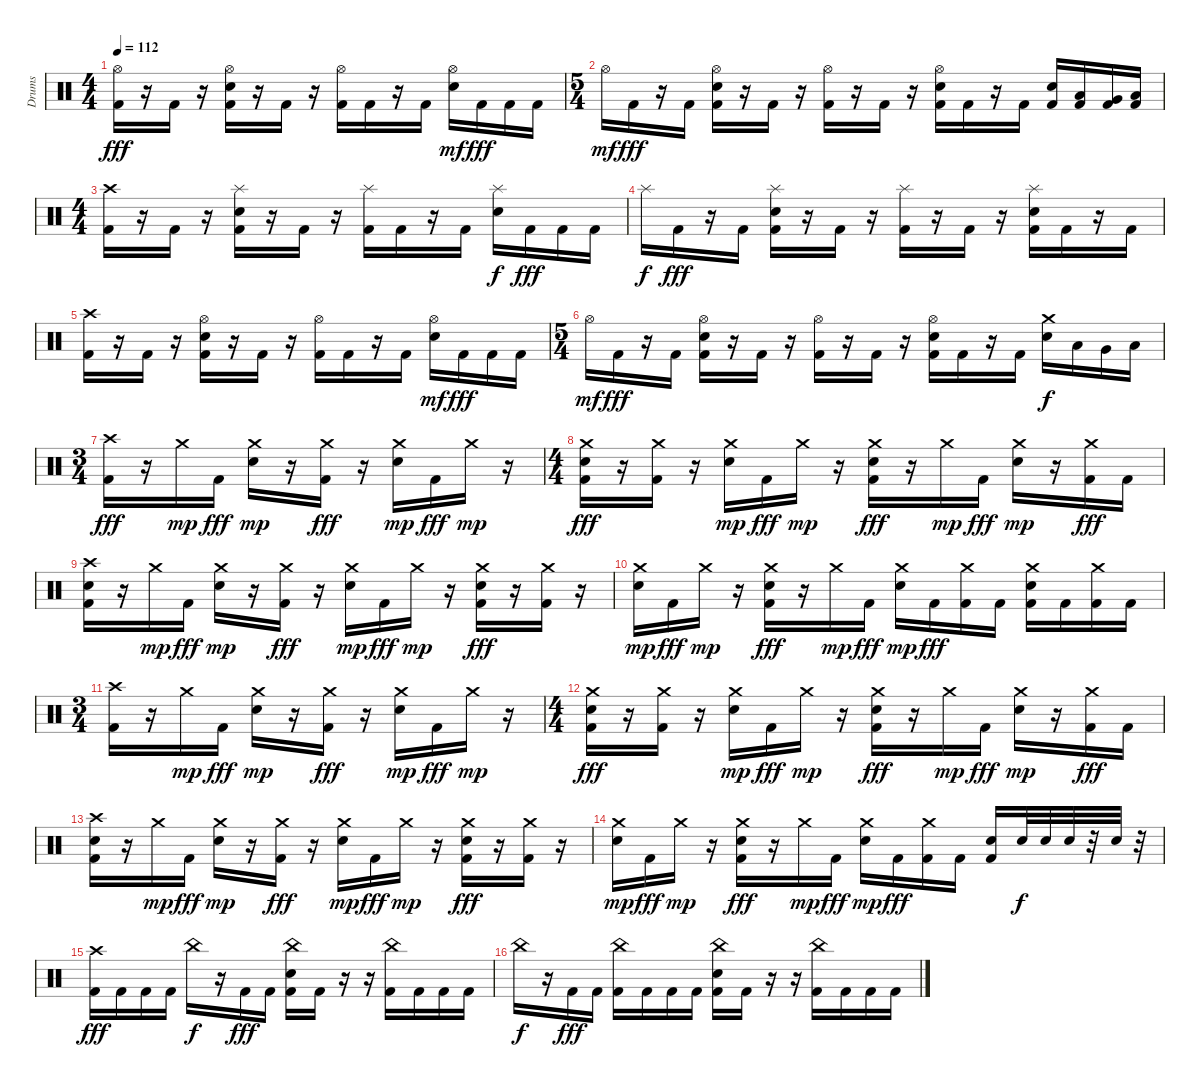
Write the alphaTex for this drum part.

\track ("Drums" "Drums") {instrument percussion}
\staff
\articulation defaults
\ts (4 4)
\tempo 112
\clef neutral
\ks c
("Hi-Hat (open)" "Kick (hit) 2").16{dy fff} r.16 "Kick (hit) 2".16 r.16 ("Hi-Hat (open)" "Electric Snare (hit)" "Kick (hit) 2").16 r.16 "Kick (hit) 2".16 r.16 ("Hi-Hat (open)" "Kick (hit) 2").16 "Kick (hit) 2".16 r.16 "Kick (hit) 2".16 ("Hi-Hat (open)" "Electric Snare (hit)").16{dy mf} "Kick (hit) 2".16{dy fff} "Kick (hit) 2".16 "Kick (hit) 2".16 |
\ts (5 4)
"Hi-Hat (open)".16{dy mf} "Kick (hit) 2".16{dy fff} r.16 "Kick (hit) 2".16 ("Hi-Hat (open)" "Electric Snare (hit)" "Kick (hit) 2").16 r.16 "Kick (hit) 2".16 r.16 ("Hi-Hat (open)" "Kick (hit) 2").16 r.16 "Kick (hit) 2".16 r.16 ("Hi-Hat (open)" "Electric Snare (hit)" "Kick (hit) 2").16 "Kick (hit) 2".16 r.16 "Kick (hit) 2".16 ("Electric Snare (hit)" "Kick (hit) 2").16 ("Low Tom (hit)" "Kick (hit) 2").16 ("Very Low Tom (hit)" "Kick (hit) 2").16 ("Low Floor Tom (hit)" "Kick (hit) 2").16 |
\ts (4 4)
("Crash high (hit)" "Kick (hit) 2").16 r.16 "Kick (hit) 2".16 r.16 ("Splash (hit)" "Electric Snare (hit)" "Kick (hit) 2").16 r.16 "Kick (hit) 2".16 r.16 ("Splash (hit)" "Kick (hit) 2").16 "Kick (hit) 2".16 r.16 "Kick (hit) 2".16 ("Splash (hit)" "Electric Snare (hit)").16{dy f} "Kick (hit) 2".16{dy fff} "Kick (hit) 2".16 "Kick (hit) 2".16 |
"Splash (hit)".16{dy f} "Kick (hit) 2".16{dy fff} r.16 "Kick (hit) 2".16 ("Splash (hit)" "Electric Snare (hit)" "Kick (hit) 2").16 r.16 "Kick (hit) 2".16 r.16 ("Splash (hit)" "Kick (hit) 2").16 r.16 "Kick (hit) 2".16 r.16 ("Splash (hit)" "Electric Snare (hit)" "Kick (hit) 2").16 "Kick (hit) 2".16 r.16 "Kick (hit) 2".16 |
("Crash high (hit)" "Kick (hit) 2").16 r.16 "Kick (hit) 2".16 r.16 ("Hi-Hat (open)" "Electric Snare (hit)" "Kick (hit) 2").16 r.16 "Kick (hit) 2".16 r.16 ("Hi-Hat (open)" "Kick (hit) 2").16 "Kick (hit) 2".16 r.16 "Kick (hit) 2".16 ("Hi-Hat (open)" "Electric Snare (hit)").16{dy mf} "Kick (hit) 2".16{dy fff} "Kick (hit) 2".16 "Kick (hit) 2".16 |
\ts (5 4)
"Hi-Hat (open)".16{dy mf} "Kick (hit) 2".16{dy fff} r.16 "Kick (hit) 2".16 ("Hi-Hat (open)" "Electric Snare (hit)" "Kick (hit) 2").16 r.16 "Kick (hit) 2".16 r.16 ("Hi-Hat (open)" "Kick (hit) 2").16 r.16 "Kick (hit) 2".16 r.16 ("Hi-Hat (open)" "Electric Snare (hit)" "Kick (hit) 2").16 "Kick (hit) 2".16 r.16 "Kick (hit) 2".16 ("Crash medium (hit)" "Electric Snare (hit)").16{dy f} "Low Tom (hit)".16 "Very Low Tom (hit)".16 "Low Floor Tom (hit)".16 |
\ts (3 4)
("Crash high (hit)" "Kick (hit) 2").16{dy fff} r.16 "Crash medium (hit)".16{dy mp} "Kick (hit) 2".16{dy fff} ("Crash medium (hit)" "Electric Snare (hit)").16{dy mp} r.16 ("Crash medium (hit)" "Kick (hit) 2").16{dy fff} r.16 ("Crash medium (hit)" "Electric Snare (hit)").16{dy mp} "Kick (hit) 2".16{dy fff} "Crash medium (hit)".16{dy mp} r.16 |
\ts (4 4)
("Crash medium (hit)" "Electric Snare (hit)" "Kick (hit) 2").16{dy fff} r.16 ("Crash medium (hit)" "Kick (hit) 2").16 r.16 ("Crash medium (hit)" "Electric Snare (hit)").16{dy mp} "Kick (hit) 2".16{dy fff} "Crash medium (hit)".16{dy mp} r.16 ("Crash medium (hit)" "Electric Snare (hit)" "Kick (hit) 2").16{dy fff} r.16 "Crash medium (hit)".16{dy mp} "Kick (hit) 2".16{dy fff} ("Crash medium (hit)" "Electric Snare (hit)").16{dy mp} r.16 ("Crash medium (hit)" "Kick (hit) 2").16{dy fff} "Kick (hit) 2".16 |
("Crash high (hit)" "Electric Snare (hit)" "Kick (hit) 2").16 r.16 "Crash medium (hit)".16{dy mp} "Kick (hit) 2".16{dy fff} ("Crash medium (hit)" "Electric Snare (hit)").16{dy mp} r.16 ("Crash medium (hit)" "Kick (hit) 2").16{dy fff} r.16 ("Crash medium (hit)" "Electric Snare (hit)").16{dy mp} "Kick (hit) 2".16{dy fff} "Crash medium (hit)".16{dy mp} r.16 ("Crash medium (hit)" "Electric Snare (hit)" "Kick (hit) 2").16{dy fff} r.16 ("Crash medium (hit)" "Kick (hit) 2").16 r.16 |
("Crash medium (hit)" "Electric Snare (hit)").16{dy mp} "Kick (hit) 2".16{dy fff} "Crash medium (hit)".16{dy mp} r.16 ("Crash medium (hit)" "Electric Snare (hit)" "Kick (hit) 2").16{dy fff} r.16 "Crash medium (hit)".16{dy mp} "Kick (hit) 2".16{dy fff} ("Crash medium (hit)" "Electric Snare (hit)").16{dy mp} "Kick (hit) 2".16{dy fff} ("Crash medium (hit)" "Kick (hit) 2").16 "Kick (hit) 2".16 ("Crash medium (hit)" "Electric Snare (hit)" "Kick (hit) 2").16 "Kick (hit) 2".16 ("Crash medium (hit)" "Kick (hit) 2").16 "Kick (hit) 2".16 |
\ts (3 4)
("Crash high (hit)" "Kick (hit) 2").16 r.16 "Crash medium (hit)".16{dy mp} "Kick (hit) 2".16{dy fff} ("Crash medium (hit)" "Electric Snare (hit)").16{dy mp} r.16 ("Crash medium (hit)" "Kick (hit) 2").16{dy fff} r.16 ("Crash medium (hit)" "Electric Snare (hit)").16{dy mp} "Kick (hit) 2".16{dy fff} "Crash medium (hit)".16{dy mp} r.16 |
\ts (4 4)
("Crash medium (hit)" "Electric Snare (hit)" "Kick (hit) 2").16{dy fff} r.16 ("Crash medium (hit)" "Kick (hit) 2").16 r.16 ("Crash medium (hit)" "Electric Snare (hit)").16{dy mp} "Kick (hit) 2".16{dy fff} "Crash medium (hit)".16{dy mp} r.16 ("Crash medium (hit)" "Electric Snare (hit)" "Kick (hit) 2").16{dy fff} r.16 "Crash medium (hit)".16{dy mp} "Kick (hit) 2".16{dy fff} ("Crash medium (hit)" "Electric Snare (hit)").16{dy mp} r.16 ("Crash medium (hit)" "Kick (hit) 2").16{dy fff} "Kick (hit) 2".16 |
("Crash high (hit)" "Electric Snare (hit)" "Kick (hit) 2").16 r.16 "Crash medium (hit)".16{dy mp} "Kick (hit) 2".16{dy fff} ("Crash medium (hit)" "Electric Snare (hit)").16{dy mp} r.16 ("Crash medium (hit)" "Kick (hit) 2").16{dy fff} r.16 ("Crash medium (hit)" "Electric Snare (hit)").16{dy mp} "Kick (hit) 2".16{dy fff} "Crash medium (hit)".16{dy mp} r.16 ("Crash medium (hit)" "Electric Snare (hit)" "Kick (hit) 2").16{dy fff} r.16 ("Crash medium (hit)" "Kick (hit) 2").16 r.16 |
("Crash medium (hit)" "Electric Snare (hit)").16{dy mp} "Kick (hit) 2".16{dy fff} "Crash medium (hit)".16{dy mp} r.16 ("Crash medium (hit)" "Electric Snare (hit)" "Kick (hit) 2").16{dy fff} r.16 "Crash medium (hit)".16{dy mp} "Kick (hit) 2".16{dy fff} ("Crash medium (hit)" "Electric Snare (hit)").16{dy mp} "Kick (hit) 2".16{dy fff} ("Crash medium (hit)" "Kick (hit) 2").16 "Kick (hit) 2".16 ("Electric Snare (hit)" "Kick (hit) 2").16 "Electric Snare (hit)".32{dy f} "Electric Snare (hit)".32 "Electric Snare (hit)".32 r.32 "Electric Snare (hit)".32 r.32 |
("Crash high (hit)" "Kick (hit) 2").16{dy fff} "Kick (hit) 2".16 "Kick (hit) 2".16 "Kick (hit) 2".16 "China (hit)".16{dy f} r.16 "Kick (hit) 2".16{dy fff} "Kick (hit) 2".16 ("China (hit)" "Electric Snare (hit)" "Kick (hit) 2").16 "Kick (hit) 2".16 r.16 r.16 ("China (hit)" "Kick (hit) 2").16 "Kick (hit) 2".16 "Kick (hit) 2".16 "Kick (hit) 2".16 |
"China (hit)".16{dy f} r.16 "Kick (hit) 2".16{dy fff} "Kick (hit) 2".16 ("China (hit)" "Kick (hit) 2").16 "Kick (hit) 2".16 "Kick (hit) 2".16 "Kick (hit) 2".16 ("China (hit)" "Electric Snare (hit)" "Kick (hit) 2").16 "Kick (hit) 2".16 r.16 r.16 ("China (hit)" "Kick (hit) 2").16 "Kick (hit) 2".16 "Kick (hit) 2".16 "Kick (hit) 2".16
